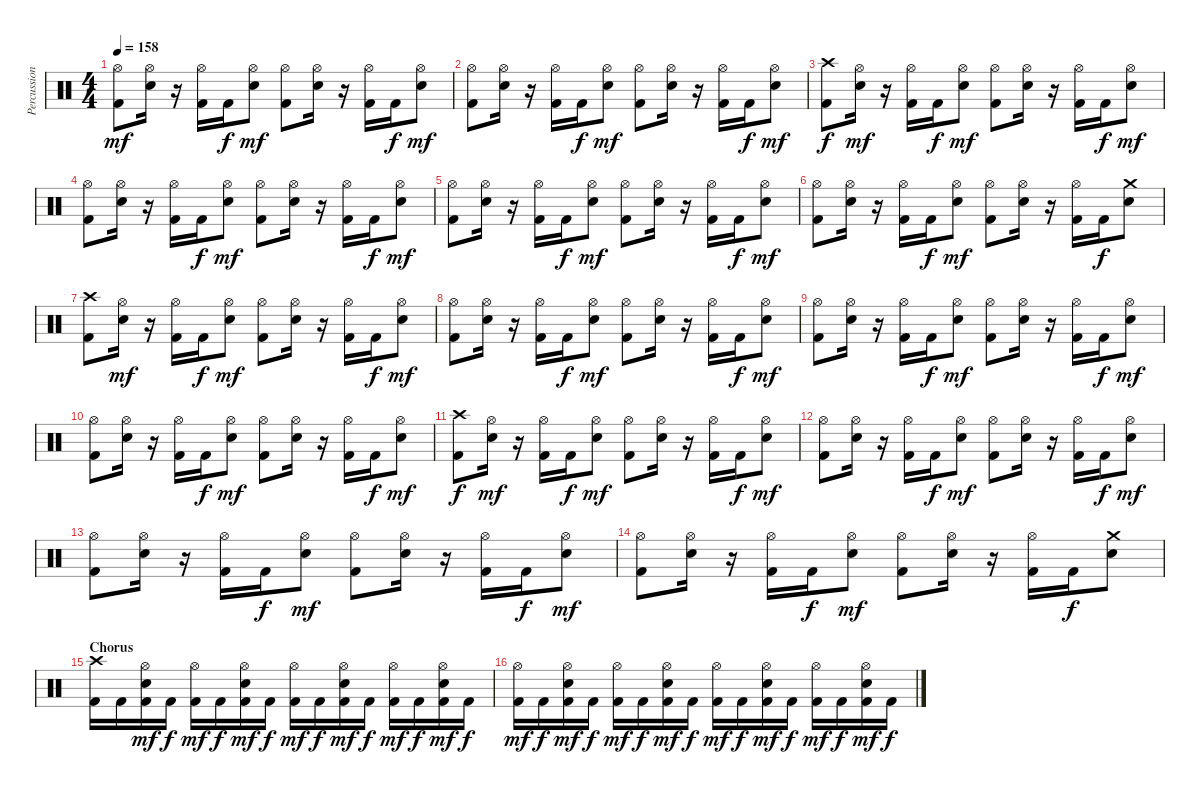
\track ("Percussion" "Percussion") {instrument percussion}
\staff {score}
\articulation defaults
\ts (4 4)
\tempo 158
\clef neutral
\ks c
("Hi-Hat (open)" "Kick (hit) 2").8{dy mf} ("Hi-Hat (open)" "Electric Snare (hit)").16 r.16 ("Hi-Hat (open)" "Kick (hit) 2").16 "Kick (hit) 2".16{dy f} ("Hi-Hat (open)" "Electric Snare (hit)").8{dy mf} ("Hi-Hat (open)" "Kick (hit) 2").8 ("Hi-Hat (open)" "Electric Snare (hit)").16 r.16 ("Hi-Hat (open)" "Kick (hit) 2").16 "Kick (hit) 2".16{dy f} ("Hi-Hat (open)" "Electric Snare (hit)").8{dy mf} |
("Hi-Hat (open)" "Kick (hit) 2").8 ("Hi-Hat (open)" "Electric Snare (hit)").16 r.16 ("Hi-Hat (open)" "Kick (hit) 2").16 "Kick (hit) 2".16{dy f} ("Hi-Hat (open)" "Electric Snare (hit)").8{dy mf} ("Hi-Hat (open)" "Kick (hit) 2").8 ("Hi-Hat (open)" "Electric Snare (hit)").16 r.16 ("Hi-Hat (open)" "Kick (hit) 2").16 "Kick (hit) 2".16{dy f} ("Hi-Hat (open)" "Electric Snare (hit)").8{dy mf} |
("Crash high (hit)" "Kick (hit) 2").8{dy f} ("Hi-Hat (open)" "Electric Snare (hit)").16{dy mf} r.16 ("Hi-Hat (open)" "Kick (hit) 2").16 "Kick (hit) 2".16{dy f} ("Hi-Hat (open)" "Electric Snare (hit)").8{dy mf} ("Hi-Hat (open)" "Kick (hit) 2").8 ("Hi-Hat (open)" "Electric Snare (hit)").16 r.16 ("Hi-Hat (open)" "Kick (hit) 2").16 "Kick (hit) 2".16{dy f} ("Hi-Hat (open)" "Electric Snare (hit)").8{dy mf} |
("Hi-Hat (open)" "Kick (hit) 2").8 ("Hi-Hat (open)" "Electric Snare (hit)").16 r.16 ("Hi-Hat (open)" "Kick (hit) 2").16 "Kick (hit) 2".16{dy f} ("Hi-Hat (open)" "Electric Snare (hit)").8{dy mf} ("Hi-Hat (open)" "Kick (hit) 2").8 ("Hi-Hat (open)" "Electric Snare (hit)").16 r.16 ("Hi-Hat (open)" "Kick (hit) 2").16 "Kick (hit) 2".16{dy f} ("Hi-Hat (open)" "Electric Snare (hit)").8{dy mf} |
("Hi-Hat (open)" "Kick (hit) 2").8 ("Hi-Hat (open)" "Electric Snare (hit)").16 r.16 ("Hi-Hat (open)" "Kick (hit) 2").16 "Kick (hit) 2".16{dy f} ("Hi-Hat (open)" "Electric Snare (hit)").8{dy mf} ("Hi-Hat (open)" "Kick (hit) 2").8 ("Hi-Hat (open)" "Electric Snare (hit)").16 r.16 ("Hi-Hat (open)" "Kick (hit) 2").16 "Kick (hit) 2".16{dy f} ("Hi-Hat (open)" "Electric Snare (hit)").8{dy mf} |
("Hi-Hat (open)" "Kick (hit) 2").8 ("Hi-Hat (open)" "Electric Snare (hit)").16 r.16 ("Hi-Hat (open)" "Kick (hit) 2").16 "Kick (hit) 2".16{dy f} ("Hi-Hat (open)" "Electric Snare (hit)").8{dy mf} ("Hi-Hat (open)" "Kick (hit) 2").8 ("Hi-Hat (open)" "Electric Snare (hit)").16 r.16 ("Hi-Hat (open)" "Kick (hit) 2").16 "Kick (hit) 2".16{dy f} ("Crash medium (hit)" "Electric Snare (hit)").8 |
("Crash high (hit)" "Kick (hit) 2").8 ("Hi-Hat (open)" "Electric Snare (hit)").16{dy mf} r.16 ("Hi-Hat (open)" "Kick (hit) 2").16 "Kick (hit) 2".16{dy f} ("Hi-Hat (open)" "Electric Snare (hit)").8{dy mf} ("Hi-Hat (open)" "Kick (hit) 2").8 ("Hi-Hat (open)" "Electric Snare (hit)").16 r.16 ("Hi-Hat (open)" "Kick (hit) 2").16 "Kick (hit) 2".16{dy f} ("Hi-Hat (open)" "Electric Snare (hit)").8{dy mf} |
("Hi-Hat (open)" "Kick (hit) 2").8 ("Hi-Hat (open)" "Electric Snare (hit)").16 r.16 ("Hi-Hat (open)" "Kick (hit) 2").16 "Kick (hit) 2".16{dy f} ("Hi-Hat (open)" "Electric Snare (hit)").8{dy mf} ("Hi-Hat (open)" "Kick (hit) 2").8 ("Hi-Hat (open)" "Electric Snare (hit)").16 r.16 ("Hi-Hat (open)" "Kick (hit) 2").16 "Kick (hit) 2".16{dy f} ("Hi-Hat (open)" "Electric Snare (hit)").8{dy mf} |
("Hi-Hat (open)" "Kick (hit) 2").8 ("Hi-Hat (open)" "Electric Snare (hit)").16 r.16 ("Hi-Hat (open)" "Kick (hit) 2").16 "Kick (hit) 2".16{dy f} ("Hi-Hat (open)" "Electric Snare (hit)").8{dy mf} ("Hi-Hat (open)" "Kick (hit) 2").8 ("Hi-Hat (open)" "Electric Snare (hit)").16 r.16 ("Hi-Hat (open)" "Kick (hit) 2").16 "Kick (hit) 2".16{dy f} ("Hi-Hat (open)" "Electric Snare (hit)").8{dy mf} |
("Hi-Hat (open)" "Kick (hit) 2").8 ("Hi-Hat (open)" "Electric Snare (hit)").16 r.16 ("Hi-Hat (open)" "Kick (hit) 2").16 "Kick (hit) 2".16{dy f} ("Hi-Hat (open)" "Electric Snare (hit)").8{dy mf} ("Hi-Hat (open)" "Kick (hit) 2").8 ("Hi-Hat (open)" "Electric Snare (hit)").16 r.16 ("Hi-Hat (open)" "Kick (hit) 2").16 "Kick (hit) 2".16{dy f} ("Hi-Hat (open)" "Electric Snare (hit)").8{dy mf} |
("Crash high (hit)" "Kick (hit) 2").8{dy f} ("Hi-Hat (open)" "Electric Snare (hit)").16{dy mf} r.16 ("Hi-Hat (open)" "Kick (hit) 2").16 "Kick (hit) 2".16{dy f} ("Hi-Hat (open)" "Electric Snare (hit)").8{dy mf} ("Hi-Hat (open)" "Kick (hit) 2").8 ("Hi-Hat (open)" "Electric Snare (hit)").16 r.16 ("Hi-Hat (open)" "Kick (hit) 2").16 "Kick (hit) 2".16{dy f} ("Hi-Hat (open)" "Electric Snare (hit)").8{dy mf} |
("Hi-Hat (open)" "Kick (hit) 2").8 ("Hi-Hat (open)" "Electric Snare (hit)").16 r.16 ("Hi-Hat (open)" "Kick (hit) 2").16 "Kick (hit) 2".16{dy f} ("Hi-Hat (open)" "Electric Snare (hit)").8{dy mf} ("Hi-Hat (open)" "Kick (hit) 2").8 ("Hi-Hat (open)" "Electric Snare (hit)").16 r.16 ("Hi-Hat (open)" "Kick (hit) 2").16 "Kick (hit) 2".16{dy f} ("Hi-Hat (open)" "Electric Snare (hit)").8{dy mf} |
("Hi-Hat (open)" "Kick (hit) 2").8 ("Hi-Hat (open)" "Electric Snare (hit)").16 r.16 ("Hi-Hat (open)" "Kick (hit) 2").16 "Kick (hit) 2".16{dy f} ("Hi-Hat (open)" "Electric Snare (hit)").8{dy mf} ("Hi-Hat (open)" "Kick (hit) 2").8 ("Hi-Hat (open)" "Electric Snare (hit)").16 r.16 ("Hi-Hat (open)" "Kick (hit) 2").16 "Kick (hit) 2".16{dy f} ("Hi-Hat (open)" "Electric Snare (hit)").8{dy mf} |
("Hi-Hat (open)" "Kick (hit) 2").8 ("Hi-Hat (open)" "Electric Snare (hit)").16 r.16 ("Hi-Hat (open)" "Kick (hit) 2").16 "Kick (hit) 2".16{dy f} ("Hi-Hat (open)" "Electric Snare (hit)").8{dy mf} ("Hi-Hat (open)" "Kick (hit) 2").8 ("Hi-Hat (open)" "Electric Snare (hit)").16 r.16 ("Hi-Hat (open)" "Kick (hit) 2").16 "Kick (hit) 2".16{dy f} ("Crash medium (hit)" "Electric Snare (hit)").8 |
\section ("" "Chorus")
("Crash high (hit)" "Kick (hit) 2").16 "Kick (hit) 2".16 ("Hi-Hat (open)" "Electric Snare (hit)" "Kick (hit) 2").16{dy mf} "Kick (hit) 2".16{dy f} ("Hi-Hat (open)" "Kick (hit) 2").16{dy mf} "Kick (hit) 2".16{dy f} ("Hi-Hat (open)" "Electric Snare (hit)" "Kick (hit) 2").16{dy mf} "Kick (hit) 2".16{dy f} ("Hi-Hat (open)" "Kick (hit) 2").16{dy mf} "Kick (hit) 2".16{dy f} ("Hi-Hat (open)" "Electric Snare (hit)" "Kick (hit) 2").16{dy mf} "Kick (hit) 2".16{dy f} ("Hi-Hat (open)" "Kick (hit) 2").16{dy mf} "Kick (hit) 2".16{dy f} ("Hi-Hat (open)" "Electric Snare (hit)" "Kick (hit) 2").16{dy mf} "Kick (hit) 2".16{dy f} |
("Hi-Hat (open)" "Kick (hit) 2").16{dy mf} "Kick (hit) 2".16{dy f} ("Hi-Hat (open)" "Electric Snare (hit)" "Kick (hit) 2").16{dy mf} "Kick (hit) 2".16{dy f} ("Hi-Hat (open)" "Kick (hit) 2").16{dy mf} "Kick (hit) 2".16{dy f} ("Hi-Hat (open)" "Electric Snare (hit)" "Kick (hit) 2").16{dy mf} "Kick (hit) 2".16{dy f} ("Hi-Hat (open)" "Kick (hit) 2").16{dy mf} "Kick (hit) 2".16{dy f} ("Hi-Hat (open)" "Electric Snare (hit)" "Kick (hit) 2").16{dy mf} "Kick (hit) 2".16{dy f} ("Hi-Hat (open)" "Kick (hit) 2").16{dy mf} "Kick (hit) 2".16{dy f} ("Hi-Hat (open)" "Electric Snare (hit)" "Kick (hit) 2").16{dy mf} "Kick (hit) 2".16{dy f}
